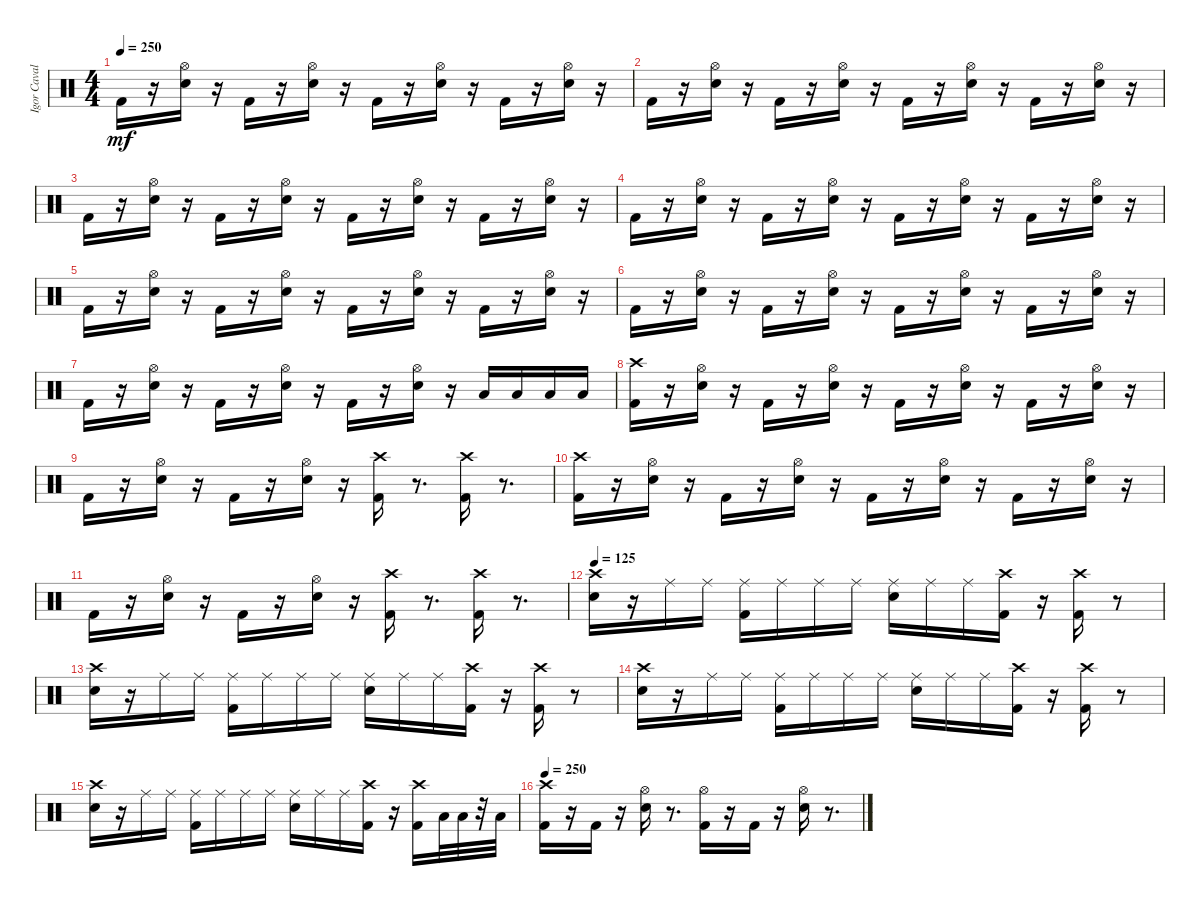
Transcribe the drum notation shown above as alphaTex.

\track ("Igor Cavalera" "Igor Caval") {instrument percussion}
\staff {score}
\articulation defaults
\ts (4 4)
\tempo 250
\clef neutral
\ks c "Kick (hit) 2".16{dy mf}
r.16 ("Snare (hit) 2" "Hi-Hat (open)").16 r.16 "Kick (hit) 2".16 r.16 ("Snare (hit) 2" "Hi-Hat (open)").16 r.16 "Kick (hit) 2".16 r.16 ("Snare (hit) 2" "Hi-Hat (open)").16 r.16 "Kick (hit) 2".16 r.16 ("Snare (hit) 2" "Hi-Hat (open)").16 r.16 |
"Kick (hit) 2".16 r.16 ("Snare (hit) 2" "Hi-Hat (open)").16 r.16 "Kick (hit) 2".16 r.16 ("Snare (hit) 2" "Hi-Hat (open)").16 r.16 "Kick (hit) 2".16 r.16 ("Snare (hit) 2" "Hi-Hat (open)").16 r.16 "Kick (hit) 2".16 r.16 ("Snare (hit) 2" "Hi-Hat (open)").16 r.16 |
"Kick (hit) 2".16 r.16 ("Snare (hit) 2" "Hi-Hat (open)").16 r.16 "Kick (hit) 2".16 r.16 ("Snare (hit) 2" "Hi-Hat (open)").16 r.16 "Kick (hit) 2".16 r.16 ("Snare (hit) 2" "Hi-Hat (open)").16 r.16 "Kick (hit) 2".16 r.16 ("Snare (hit) 2" "Hi-Hat (open)").16 r.16 |
"Kick (hit) 2".16 r.16 ("Snare (hit) 2" "Hi-Hat (open)").16 r.16 "Kick (hit) 2".16 r.16 ("Snare (hit) 2" "Hi-Hat (open)").16 r.16 "Kick (hit) 2".16 r.16 ("Snare (hit) 2" "Hi-Hat (open)").16 r.16 "Kick (hit) 2".16 r.16 ("Snare (hit) 2" "Hi-Hat (open)").16 r.16 |
"Kick (hit) 2".16 r.16 ("Snare (hit) 2" "Hi-Hat (open)").16 r.16 "Kick (hit) 2".16 r.16 ("Snare (hit) 2" "Hi-Hat (open)").16 r.16 "Kick (hit) 2".16 r.16 ("Snare (hit) 2" "Hi-Hat (open)").16 r.16 "Kick (hit) 2".16 r.16 ("Snare (hit) 2" "Hi-Hat (open)").16 r.16 |
"Kick (hit) 2".16 r.16 ("Snare (hit) 2" "Hi-Hat (open)").16 r.16 "Kick (hit) 2".16 r.16 ("Snare (hit) 2" "Hi-Hat (open)").16 r.16 "Kick (hit) 2".16 r.16 ("Snare (hit) 2" "Hi-Hat (open)").16 r.16 "Kick (hit) 2".16 r.16 ("Snare (hit) 2" "Hi-Hat (open)").16 r.16 |
"Kick (hit) 2".16 r.16 ("Snare (hit) 2" "Hi-Hat (open)").16 r.16 "Kick (hit) 2".16 r.16 ("Snare (hit) 2" "Hi-Hat (open)").16 r.16 "Kick (hit) 2".16 r.16 ("Snare (hit) 2" "Hi-Hat (open)").16 r.16 "Low Tom (hit)".16 "Low Tom (hit)".16 "Low Floor Tom (hit)".16 "Low Floor Tom (hit)".16 |
("Kick (hit) 2" "Crash high (hit)").16 r.16 ("Snare (hit) 2" "Hi-Hat (open)").16 r.16 "Kick (hit) 2".16 r.16 ("Snare (hit) 2" "Hi-Hat (open)").16 r.16 "Kick (hit) 2".16 r.16 ("Snare (hit) 2" "Hi-Hat (open)").16 r.16 "Kick (hit) 2".16 r.16 ("Snare (hit) 2" "Hi-Hat (open)").16 r.16 |
"Kick (hit) 2".16 r.16 ("Snare (hit) 2" "Hi-Hat (open)").16 r.16 "Kick (hit) 2".16 r.16 ("Snare (hit) 2" "Hi-Hat (open)").16 r.16 ("Kick (hit) 2" "Crash high (hit)").16 r.8{d} ("Kick (hit) 2" "Crash high (hit)").16 r.8{d} |
("Kick (hit) 2" "Crash high (hit)").16 r.16 ("Snare (hit) 2" "Hi-Hat (open)").16 r.16 "Kick (hit) 2".16 r.16 ("Snare (hit) 2" "Hi-Hat (open)").16 r.16 "Kick (hit) 2".16 r.16 ("Snare (hit) 2" "Hi-Hat (open)").16 r.16 "Kick (hit) 2".16 r.16 ("Snare (hit) 2" "Hi-Hat (open)").16 r.16 |
"Kick (hit) 2".16 r.16 ("Snare (hit) 2" "Hi-Hat (open)").16 r.16 "Kick (hit) 2".16 r.16 ("Snare (hit) 2" "Hi-Hat (open)").16 r.16 ("Kick (hit) 2" "Crash high (hit)").16 r.8{d} ("Kick (hit) 2" "Crash high (hit)").16 r.8{d} |
\tempo 125
("Crash high (hit)" "Snare (hit) 2").16 r.16 "Ride (middle)".16 "Ride (middle)".16 ("Ride (middle)" "Kick (hit) 2").16 "Ride (middle)".16 "Ride (middle)".16 "Ride (middle)".16 ("Ride (middle)" "Snare (hit) 2").16 "Ride (middle)".16 "Ride (middle)".16 ("Crash high (hit)" "Kick (hit) 2").16 r.16 ("Kick (hit) 2" "Crash high (hit)").16 r.8 |
("Crash high (hit)" "Snare (hit) 2").16 r.16 "Ride (middle)".16 "Ride (middle)".16 ("Ride (middle)" "Kick (hit) 2").16 "Ride (middle)".16 "Ride (middle)".16 "Ride (middle)".16 ("Ride (middle)" "Snare (hit) 2").16 "Ride (middle)".16 "Ride (middle)".16 ("Crash high (hit)" "Kick (hit) 2").16 r.16 ("Kick (hit) 2" "Crash high (hit)").16 r.8 |
("Crash high (hit)" "Snare (hit) 2").16 r.16 "Ride (middle)".16 "Ride (middle)".16 ("Ride (middle)" "Kick (hit) 2").16 "Ride (middle)".16 "Ride (middle)".16 "Ride (middle)".16 ("Ride (middle)" "Snare (hit) 2").16 "Ride (middle)".16 "Ride (middle)".16 ("Crash high (hit)" "Kick (hit) 2").16 r.16 ("Kick (hit) 2" "Crash high (hit)").16 r.8 |
("Crash high (hit)" "Snare (hit) 2").16 r.16 "Ride (middle)".16 "Ride (middle)".16 ("Ride (middle)" "Kick (hit) 2").16 "Ride (middle)".16 "Ride (middle)".16 "Ride (middle)".16 ("Ride (middle)" "Snare (hit) 2").16 "Ride (middle)".16 "Ride (middle)".16 ("Crash high (hit)" "Kick (hit) 2").16 r.16 ("Kick (hit) 2" "Crash high (hit)").16 "Low Tom (hit)".32 "Low Tom (hit)".32 r.32 "Low Tom (hit)".32 |
\tempo 250
("Kick (hit) 2" "Crash high (hit)").16 r.16 "Kick (hit) 2".16 r.16 ("Snare (hit) 2" "Hi-Hat (open)").16 r.8{d} ("Kick (hit) 2" "Hi-Hat (open)").16 r.16 "Kick (hit) 2".16 r.16 ("Snare (hit) 2" "Hi-Hat (open)").16 r.8{d}
